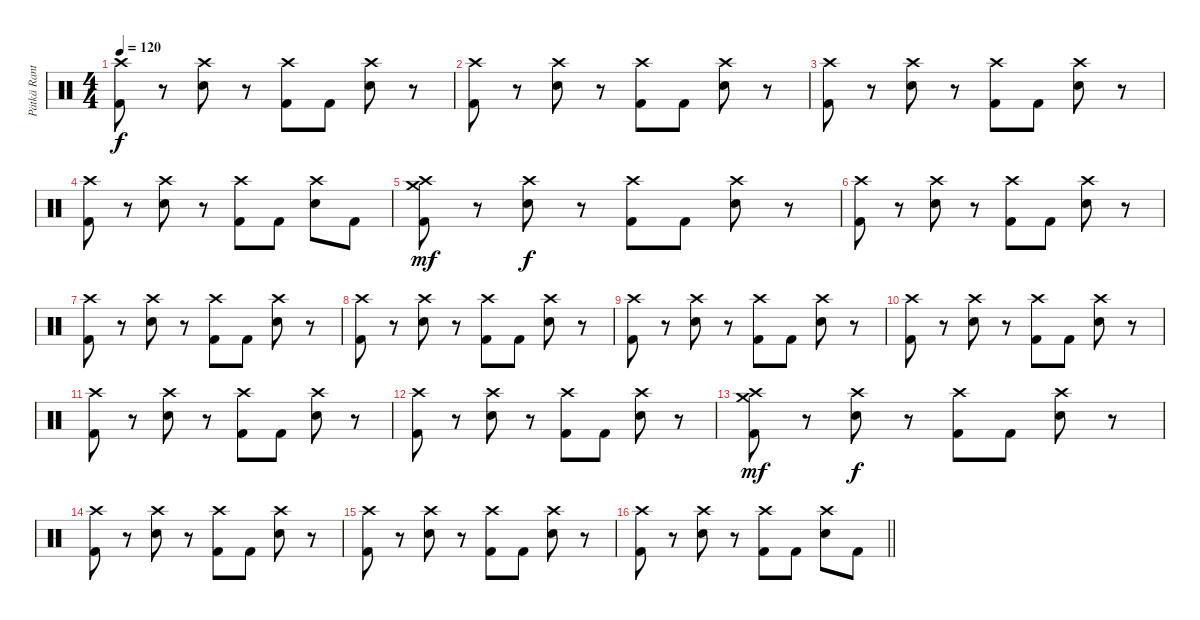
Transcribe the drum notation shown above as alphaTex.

\track ("Pätkä Rantala (Drums)" "Pätkä Rant") {instrument percussion}
\staff {score}
\articulation defaults
\ts (4 4)
\tempo 120
\clef neutral
\ks c
("Crash high (hit)" "Kick (hit) 2").8{dy f} r.8 ("Crash high (hit)" "Snare (hit) 2").8 r.8 ("Crash high (hit)" "Kick (hit) 2").8 "Kick (hit) 2".8 ("Crash high (hit)" "Snare (hit) 2").8 r.8 |
("Crash high (hit)" "Kick (hit) 2").8 r.8 ("Crash high (hit)" "Snare (hit) 2").8 r.8 ("Crash high (hit)" "Kick (hit) 2").8 "Kick (hit) 2".8 ("Crash high (hit)" "Snare (hit) 2").8 r.8 |
("Crash high (hit)" "Kick (hit) 2").8 r.8 ("Crash high (hit)" "Snare (hit) 2").8 r.8 ("Crash high (hit)" "Kick (hit) 2").8 "Kick (hit) 2".8 ("Crash high (hit)" "Snare (hit) 2").8 r.8 |
("Crash high (hit)" "Kick (hit) 2").8 r.8 ("Crash high (hit)" "Snare (hit) 2").8 r.8 ("Crash high (hit)" "Kick (hit) 2").8 "Kick (hit) 2".8 ("Crash high (hit)" "Snare (hit) 2").8 "Kick (hit) 2".8 |
("Crash medium (hit)" "Crash high (hit)" "Kick (hit) 2").8{dy mf} r.8 ("Crash high (hit)" "Snare (hit) 2").8{dy f} r.8 ("Crash high (hit)" "Kick (hit) 2").8 "Kick (hit) 2".8 ("Crash high (hit)" "Snare (hit) 2").8 r.8 |
("Crash high (hit)" "Kick (hit) 2").8 r.8 ("Crash high (hit)" "Snare (hit) 2").8 r.8 ("Crash high (hit)" "Kick (hit) 2").8 "Kick (hit) 2".8 ("Crash high (hit)" "Snare (hit) 2").8 r.8 |
("Crash high (hit)" "Kick (hit) 2").8 r.8 ("Crash high (hit)" "Snare (hit) 2").8 r.8 ("Crash high (hit)" "Kick (hit) 2").8 "Kick (hit) 2".8 ("Crash high (hit)" "Snare (hit) 2").8 r.8 |
("Crash high (hit)" "Kick (hit) 2").8 r.8 ("Crash high (hit)" "Snare (hit) 2").8 r.8 ("Crash high (hit)" "Kick (hit) 2").8 "Kick (hit) 2".8 ("Crash high (hit)" "Snare (hit) 2").8 r.8 |
("Crash high (hit)" "Kick (hit) 2").8 r.8 ("Crash high (hit)" "Snare (hit) 2").8 r.8 ("Crash high (hit)" "Kick (hit) 2").8 "Kick (hit) 2".8 ("Crash high (hit)" "Snare (hit) 2").8 r.8 |
("Crash high (hit)" "Kick (hit) 2").8 r.8 ("Crash high (hit)" "Snare (hit) 2").8 r.8 ("Crash high (hit)" "Kick (hit) 2").8 "Kick (hit) 2".8 ("Crash high (hit)" "Snare (hit) 2").8 r.8 |
("Crash high (hit)" "Kick (hit) 2").8 r.8 ("Crash high (hit)" "Snare (hit) 2").8 r.8 ("Crash high (hit)" "Kick (hit) 2").8 "Kick (hit) 2".8 ("Crash high (hit)" "Snare (hit) 2").8 r.8 |
("Crash high (hit)" "Kick (hit) 2").8 r.8 ("Crash high (hit)" "Snare (hit) 2").8 r.8 ("Crash high (hit)" "Kick (hit) 2").8 "Kick (hit) 2".8 ("Crash high (hit)" "Snare (hit) 2").8 r.8 |
("Crash medium (hit)" "Crash high (hit)" "Kick (hit) 2").8{dy mf} r.8 ("Crash high (hit)" "Snare (hit) 2").8{dy f} r.8 ("Crash high (hit)" "Kick (hit) 2").8 "Kick (hit) 2".8 ("Crash high (hit)" "Snare (hit) 2").8 r.8 |
("Crash high (hit)" "Kick (hit) 2").8 r.8 ("Crash high (hit)" "Snare (hit) 2").8 r.8 ("Crash high (hit)" "Kick (hit) 2").8 "Kick (hit) 2".8 ("Crash high (hit)" "Snare (hit) 2").8 r.8 |
("Crash high (hit)" "Kick (hit) 2").8 r.8 ("Crash high (hit)" "Snare (hit) 2").8 r.8 ("Crash high (hit)" "Kick (hit) 2").8 "Kick (hit) 2".8 ("Crash high (hit)" "Snare (hit) 2").8 r.8 |
\barLineRight lightlight
("Crash high (hit)" "Kick (hit) 2").8 r.8 ("Crash high (hit)" "Snare (hit) 2").8 r.8 ("Crash high (hit)" "Kick (hit) 2").8 "Kick (hit) 2".8 ("Crash high (hit)" "Snare (hit) 2").8 "Kick (hit) 2".8
